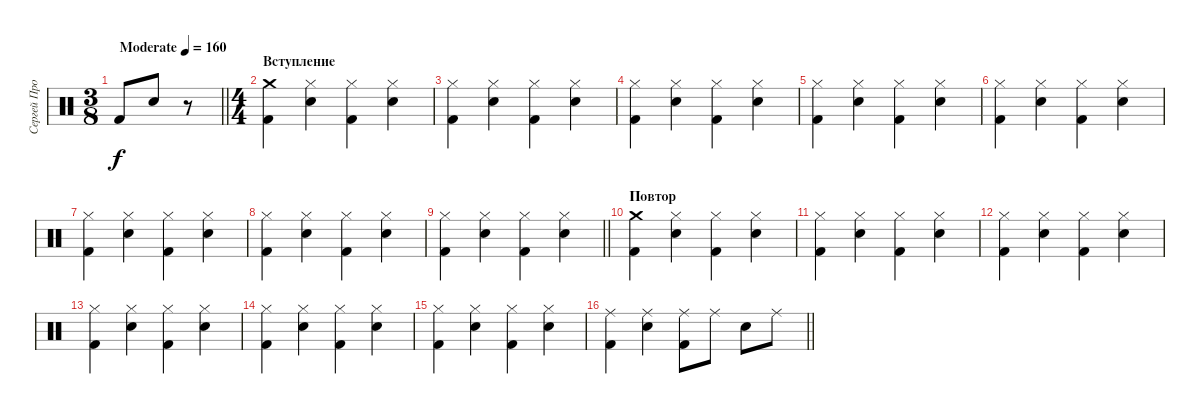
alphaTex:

\track ("Сергей Прокофьев" "Сергей Про") {instrument percussion}
\staff {score}
\articulation defaults
\ts (3 8)
\tempo (160 "Moderate")
\clef neutral
\barLineRight lightlight
\ks c "Kick (hit) 2".8{dy f} "Snare (hit) 2".8
r.8 |
\ts (4 4)
\section ("" "Вступление")
("Crash medium (hit)" "Kick (hit) 2").4 ("Hi-Hat (closed)" "Snare (hit) 2").4 ("Hi-Hat (closed)" "Kick (hit) 2").4 ("Hi-Hat (closed)" "Snare (hit) 2").4 |
("Hi-Hat (closed)" "Kick (hit) 2").4 ("Hi-Hat (closed)" "Snare (hit) 2").4 ("Hi-Hat (closed)" "Kick (hit) 2").4 ("Hi-Hat (closed)" "Snare (hit) 2").4 |
("Hi-Hat (closed)" "Kick (hit) 2").4 ("Hi-Hat (closed)" "Snare (hit) 2").4 ("Hi-Hat (closed)" "Kick (hit) 2").4 ("Hi-Hat (closed)" "Snare (hit) 2").4 |
("Hi-Hat (closed)" "Kick (hit) 2").4 ("Hi-Hat (closed)" "Snare (hit) 2").4 ("Hi-Hat (closed)" "Kick (hit) 2").4 ("Hi-Hat (closed)" "Snare (hit) 2").4 |
("Hi-Hat (closed)" "Kick (hit) 2").4 ("Hi-Hat (closed)" "Snare (hit) 2").4 ("Hi-Hat (closed)" "Kick (hit) 2").4 ("Hi-Hat (closed)" "Snare (hit) 2").4 |
("Hi-Hat (closed)" "Kick (hit) 2").4 ("Hi-Hat (closed)" "Snare (hit) 2").4 ("Hi-Hat (closed)" "Kick (hit) 2").4 ("Hi-Hat (closed)" "Snare (hit) 2").4 |
("Hi-Hat (closed)" "Kick (hit) 2").4 ("Hi-Hat (closed)" "Snare (hit) 2").4 ("Hi-Hat (closed)" "Kick (hit) 2").4 ("Hi-Hat (closed)" "Snare (hit) 2").4 |
\barLineRight lightlight
("Hi-Hat (closed)" "Kick (hit) 2").4 ("Hi-Hat (closed)" "Snare (hit) 2").4 ("Hi-Hat (closed)" "Kick (hit) 2").4 ("Hi-Hat (closed)" "Snare (hit) 2").4 |
\section ("" "Повтор")
("Crash medium (hit)" "Kick (hit) 2").4 ("Hi-Hat (closed)" "Snare (hit) 2").4 ("Hi-Hat (closed)" "Kick (hit) 2").4 ("Hi-Hat (closed)" "Snare (hit) 2").4 |
("Hi-Hat (closed)" "Kick (hit) 2").4 ("Hi-Hat (closed)" "Snare (hit) 2").4 ("Hi-Hat (closed)" "Kick (hit) 2").4 ("Hi-Hat (closed)" "Snare (hit) 2").4 |
("Hi-Hat (closed)" "Kick (hit) 2").4 ("Hi-Hat (closed)" "Snare (hit) 2").4 ("Hi-Hat (closed)" "Kick (hit) 2").4 ("Hi-Hat (closed)" "Snare (hit) 2").4 |
("Hi-Hat (closed)" "Kick (hit) 2").4 ("Hi-Hat (closed)" "Snare (hit) 2").4 ("Hi-Hat (closed)" "Kick (hit) 2").4 ("Hi-Hat (closed)" "Snare (hit) 2").4 |
("Hi-Hat (closed)" "Kick (hit) 2").4 ("Hi-Hat (closed)" "Snare (hit) 2").4 ("Hi-Hat (closed)" "Kick (hit) 2").4 ("Hi-Hat (closed)" "Snare (hit) 2").4 |
("Hi-Hat (closed)" "Kick (hit) 2").4 ("Hi-Hat (closed)" "Snare (hit) 2").4 ("Hi-Hat (closed)" "Kick (hit) 2").4 ("Hi-Hat (closed)" "Snare (hit) 2").4 |
\barLineRight lightlight
("Ride (middle)" "Kick (hit) 2").4 ("Ride (middle)" "Snare (hit) 2").4 ("Ride (middle)" "Kick (hit) 2").8 "Ride (middle)".8 "Snare (hit) 2".8 "Ride (middle)".8
